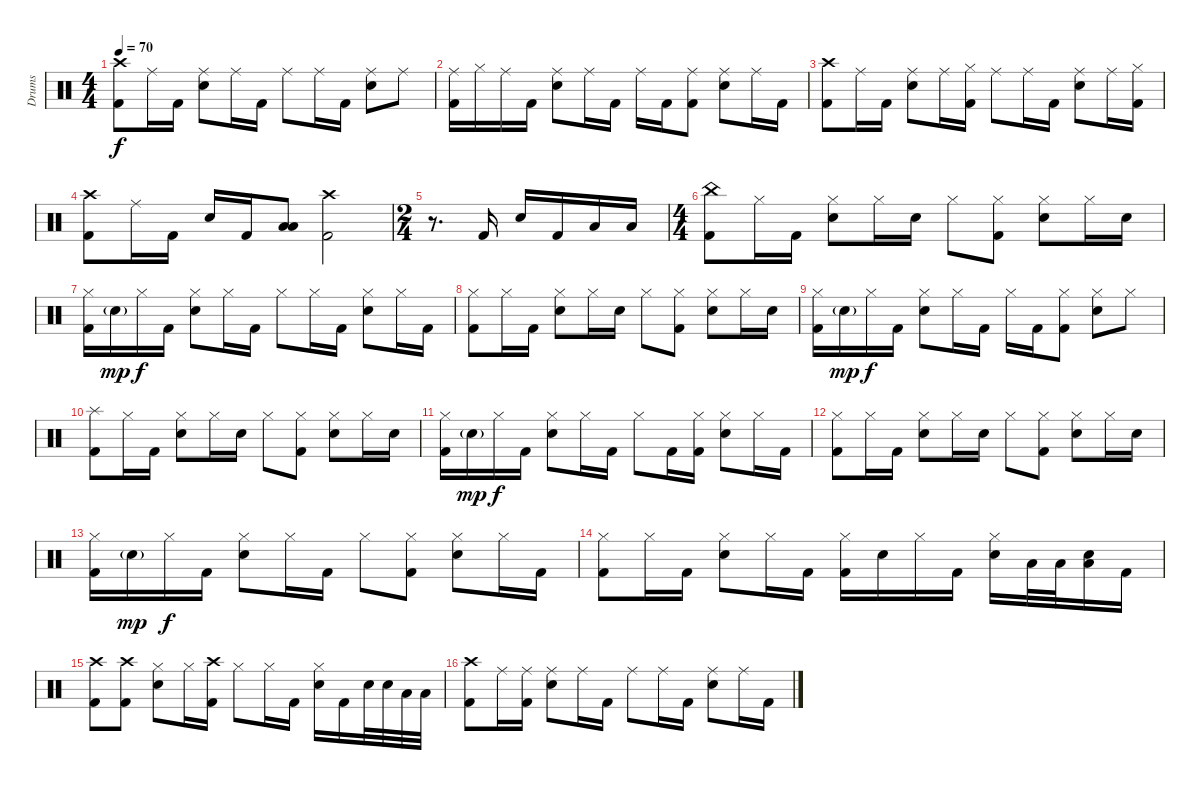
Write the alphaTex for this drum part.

\track ("Drums" "Drums") {instrument percussion}
\staff {score}
\articulation defaults
\ts (4 4)
\tempo 70
\clef neutral
\ks c
("Crash high (hit)" "Kick (hit) 2").8{dy f} "Ride (middle)".16 "Kick (hit) 2".16 ("Ride (middle)" "Electric Snare (hit)").8 "Ride (middle)".16 "Kick (hit) 2".16 "Ride (middle)".8 "Ride (middle)".16 "Kick (hit) 2".16 ("Ride (middle)" "Electric Snare (hit)").8 "Ride (middle)".8 |
("Ride (middle)" "Kick (hit) 2").16 "Hi-Hat (closed)".16 "Ride (middle)".16 "Kick (hit) 2".16 ("Ride (middle)" "Electric Snare (hit)").8 "Ride (middle)".16 "Kick (hit) 2".16 "Ride (middle)".16 "Kick (hit) 2".16 ("Ride (middle)" "Kick (hit) 2").8 ("Ride (middle)" "Electric Snare (hit)").8 "Ride (middle)".16 "Kick (hit) 2".16 |
("Crash high (hit)" "Kick (hit) 2").8 "Ride (middle)".16 "Kick (hit) 2".16 ("Ride (middle)" "Electric Snare (hit)").8 "Ride (middle)".16 ("Hi-Hat (closed)" "Kick (hit) 2").16 "Ride (middle)".8 "Ride (middle)".16 "Kick (hit) 2".16 ("Ride (middle)" "Electric Snare (hit)").8 "Ride (middle)".16 ("Hi-Hat (closed)" "Kick (hit) 2").16 |
("Crash high (hit)" "Kick (hit) 2").8 "Ride (middle)".16 "Kick (hit) 2".16 "Electric Snare (hit)".16 "Kick (hit) 2".16 ("Low Tom (hit)" "Low Floor Tom (hit)").8 ("Crash high (hit)" "Kick (hit) 2").2 |
\ts (2 4)
r.8{d} "Kick (hit) 2".16 "Electric Snare (hit)".16 "Kick (hit) 2".16 "Low Tom (hit)".16 "Low Floor Tom (hit)".16 |
\ts (4 4)
("China (hit)" "Kick (hit) 2").8 "Hi-Hat (closed)".16 "Kick (hit) 2".16 ("Hi-Hat (closed)" "Electric Snare (hit)").8 "Hi-Hat (closed)".16 "Electric Snare (hit)".16 "Hi-Hat (closed)".8 ("Hi-Hat (closed)" "Kick (hit) 2").8 ("Hi-Hat (closed)" "Electric Snare (hit)").8 "Hi-Hat (closed)".16 "Electric Snare (hit)".16 |
("Hi-Hat (closed)" "Kick (hit) 2").16 "Electric Snare (hit)"{g}.16{dy mp} "Hi-Hat (closed)".16{dy f} "Kick (hit) 2".16 ("Hi-Hat (closed)" "Electric Snare (hit)").8 "Hi-Hat (closed)".16 "Kick (hit) 2".16 "Hi-Hat (closed)".8 "Hi-Hat (closed)".16 "Kick (hit) 2".16 ("Hi-Hat (closed)" "Electric Snare (hit)").8 "Hi-Hat (closed)".16 "Kick (hit) 2".16 |
("Hi-Hat (closed)" "Kick (hit) 2").8 "Hi-Hat (closed)".16 "Kick (hit) 2".16 ("Hi-Hat (closed)" "Electric Snare (hit)").8 "Hi-Hat (closed)".16 "Electric Snare (hit)".16 "Hi-Hat (closed)".8 ("Hi-Hat (closed)" "Kick (hit) 2").8 ("Hi-Hat (closed)" "Electric Snare (hit)").8 "Hi-Hat (closed)".16 "Electric Snare (hit)".16 |
("Hi-Hat (closed)" "Kick (hit) 2").16 "Electric Snare (hit)"{g}.16{dy mp} "Hi-Hat (closed)".16{dy f} "Kick (hit) 2".16 ("Hi-Hat (closed)" "Electric Snare (hit)").8 "Hi-Hat (closed)".16 "Kick (hit) 2".16 "Hi-Hat (closed)".16 "Kick (hit) 2".16 ("Hi-Hat (closed)" "Kick (hit) 2").8 ("Hi-Hat (closed)" "Electric Snare (hit)").8 "Hi-Hat (closed)".8 |
("Splash (hit)" "Kick (hit) 2").8 "Hi-Hat (closed)".16 "Kick (hit) 2".16 ("Hi-Hat (closed)" "Electric Snare (hit)").8 "Hi-Hat (closed)".16 "Electric Snare (hit)".16 "Hi-Hat (closed)".8 ("Hi-Hat (closed)" "Kick (hit) 2").8 ("Hi-Hat (closed)" "Electric Snare (hit)").8 "Hi-Hat (closed)".16 "Electric Snare (hit)".16 |
("Hi-Hat (closed)" "Kick (hit) 2").16 "Electric Snare (hit)"{g}.16{dy mp} "Hi-Hat (closed)".16{dy f} "Kick (hit) 2".16 ("Hi-Hat (closed)" "Electric Snare (hit)").8 "Hi-Hat (closed)".16 "Kick (hit) 2".16 "Hi-Hat (closed)".8 "Kick (hit) 2".16 ("Hi-Hat (closed)" "Kick (hit) 2").16 ("Hi-Hat (closed)" "Electric Snare (hit)").8 "Hi-Hat (closed)".16 "Kick (hit) 2".16 |
("Hi-Hat (closed)" "Kick (hit) 2").8 "Hi-Hat (closed)".16 "Kick (hit) 2".16 ("Hi-Hat (closed)" "Electric Snare (hit)").8 "Hi-Hat (closed)".16 "Electric Snare (hit)".16 "Hi-Hat (closed)".8 ("Hi-Hat (closed)" "Kick (hit) 2").8 ("Hi-Hat (closed)" "Electric Snare (hit)").8 "Hi-Hat (closed)".16 "Electric Snare (hit)".16 |
("Hi-Hat (closed)" "Kick (hit) 2").16 "Electric Snare (hit)"{g}.16{dy mp} "Hi-Hat (closed)".16{dy f} "Kick (hit) 2".16 ("Hi-Hat (closed)" "Electric Snare (hit)").8 "Hi-Hat (closed)".16 "Kick (hit) 2".16 "Hi-Hat (closed)".8 ("Hi-Hat (closed)" "Kick (hit) 2").8 ("Hi-Hat (closed)" "Electric Snare (hit)").8 "Hi-Hat (closed)".16 "Kick (hit) 2".16 |
("Hi-Hat (closed)" "Kick (hit) 2").8 "Hi-Hat (closed)".16 "Kick (hit) 2".16 ("Hi-Hat (closed)" "Electric Snare (hit)").8 "Hi-Hat (closed)".16 "Kick (hit) 2".16 ("Hi-Hat (closed)" "Kick (hit) 2").16 "Electric Snare (hit)".16 "Hi-Hat (closed)".16 "Kick (hit) 2".16 ("Hi-Hat (closed)" "Electric Snare (hit)").16 "Low Tom (hit)".32 "Low Tom (hit)".32 ("Electric Snare (hit)" "Low Floor Tom (hit)").16 "Kick (hit) 2".16 |
("Crash high (hit)" "Kick (hit) 2").8 ("Crash high (hit)" "Kick (hit) 2").8 ("Hi-Hat (closed)" "Electric Snare (hit)").8 "Hi-Hat (closed)".16 ("Crash high (hit)" "Kick (hit) 2").16 "Hi-Hat (closed)".8 "Hi-Hat (closed)".16 "Kick (hit) 2".16 ("Hi-Hat (closed)" "Electric Snare (hit)").16 "Kick (hit) 2".16 "Electric Snare (hit)".32 "Electric Snare (hit)".32 "Low Tom (hit)".32 "Low Tom (hit)".32 |
("Crash high (hit)" "Kick (hit) 2").8 "Ride (middle)".16 ("Ride (middle)" "Kick (hit) 2").16 ("Ride (middle)" "Electric Snare (hit)").8 "Ride (middle)".16 "Kick (hit) 2".16 "Ride (middle)".8 "Ride (middle)".16 "Kick (hit) 2".16 ("Ride (middle)" "Electric Snare (hit)").8 "Ride (middle)".16 "Kick (hit) 2".16
